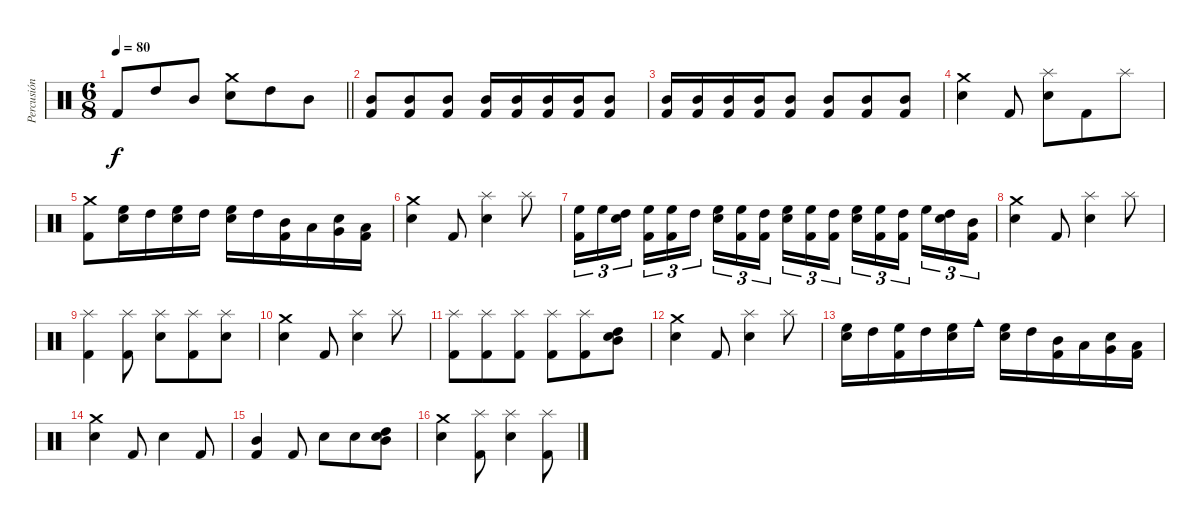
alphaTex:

\track ("Percusión" "Percusión") {instrument percussion}
\staff {score}
\articulation defaults
\ts (6 8)
\tempo 80
\clef neutral
\barLineRight lightlight
\ks c "Kick (hit) 2".8{dy f} "High Tom (hit)".8 "Mid Tom (hit)".8
("Snare (hit) 2" "Crash medium (hit)").8 "High Tom (hit)".8 "Mid Tom (hit)".8 |
("Kick (hit) 2" "Mid Tom (hit)").8 ("Kick (hit) 2" "Mid Tom (hit)").8 ("Kick (hit) 2" "Mid Tom (hit)").8 ("Kick (hit) 2" "Mid Tom (hit)").16 ("Kick (hit) 2" "Mid Tom (hit)").16 ("Kick (hit) 2" "Mid Tom (hit)").16 ("Kick (hit) 2" "Mid Tom (hit)").16 ("Kick (hit) 2" "Mid Tom (hit)").8 |
("Kick (hit) 2" "Mid Tom (hit)").16 ("Kick (hit) 2" "Mid Tom (hit)").16 ("Kick (hit) 2" "Mid Tom (hit)").16 ("Kick (hit) 2" "Mid Tom (hit)").16 ("Kick (hit) 2" "Mid Tom (hit)").8 ("Kick (hit) 2" "Mid Tom (hit)").8 ("Kick (hit) 2" "Mid Tom (hit)").8 ("Kick (hit) 2" "Mid Tom (hit)").8 |
("Snare (hit) 2" "Crash medium (hit)").4 "Kick (hit) 2".8 ("Snare (hit) 2" "Splash (hit)").8 "Kick (hit) 2".8 "Splash (hit)".8 |
("Kick (hit) 2" "Crash medium (hit)").8 ("Snare (hit) 2" "High Floor Tom (hit)").16 "High Tom (hit)".16 ("Snare (hit) 2" "High Floor Tom (hit)").16 "High Tom (hit)".16 ("Snare (hit) 2" "High Floor Tom (hit)").16 "High Tom (hit)".16 ("Kick (hit) 2" "Mid Tom (hit)").16 "Low Tom (hit)".16 ("Snare (hit) 2" "Very Low Tom (hit)").16 ("Kick (hit) 2" "Low Floor Tom (hit)").16 |
("Snare (hit) 2" "Crash medium (hit)").4 "Kick (hit) 2".8 ("Snare (hit) 2" "Splash (hit)").4 "Splash (hit)".8 |
("Kick (hit) 2" "High Floor Tom (hit)").16{tu (3 2)} "High Floor Tom (hit)".16{tu (3 2)} ("Snare (hit) 2" "High Tom (hit)").16{tu (3 2) beam splitsecondary} ("Kick (hit) 2" "High Floor Tom (hit)").16{tu (3 2)} ("Kick (hit) 2" "High Floor Tom (hit)").16{tu (3 2)} "High Tom (hit)".16{tu (3 2) beam splitsecondary} ("Snare (hit) 2" "High Floor Tom (hit)").16{tu (3 2)} ("Kick (hit) 2" "High Floor Tom (hit)").16{tu (3 2)} ("Kick (hit) 2" "High Tom (hit)").16{tu (3 2)} ("Snare (hit) 2" "High Floor Tom (hit)").16{tu (3 2)} ("Kick (hit) 2" "High Floor Tom (hit)").16{tu (3 2)} ("Kick (hit) 2" "High Tom (hit)").16{tu (3 2) beam splitsecondary} ("Snare (hit) 2" "High Floor Tom (hit)").16{tu (3 2)} ("Kick (hit) 2" "High Floor Tom (hit)").16{tu (3 2)} ("Kick (hit) 2" "High Tom (hit)").16{tu (3 2) beam splitsecondary} "High Floor Tom (hit)".16{tu (3 2)} ("Snare (hit) 2" "High Tom (hit)").16{tu (3 2)} ("Kick (hit) 2" "Mid Tom (hit)").16{tu (3 2)} |
("Snare (hit) 2" "Crash medium (hit)").4 "Kick (hit) 2".8 ("Snare (hit) 2" "Splash (hit)").4 "Splash (hit)".8 |
("Kick (hit) 2" "Splash (hit)").4 ("Kick (hit) 2" "Splash (hit)").8 ("Snare (hit) 2" "Splash (hit)").8 ("Kick (hit) 2" "Splash (hit)").8 ("Snare (hit) 2" "Splash (hit)").8 |
("Snare (hit) 2" "Crash medium (hit)").4 "Kick (hit) 2".8 ("Snare (hit) 2" "Splash (hit)").4 "Splash (hit)".8 |
("Kick (hit) 2" "Splash (hit)").8 ("Kick (hit) 2" "Splash (hit)").8 ("Kick (hit) 2" "Splash (hit)").8 ("Kick (hit) 2" "Splash (hit)").8 ("Kick (hit) 2" "Splash (hit)").8 ("Snare (hit) 2" "High Tom (hit)" "Mid Tom (hit)").8 |
("Snare (hit) 2" "Crash medium (hit)").4 "Kick (hit) 2".8 ("Snare (hit) 2" "Splash (hit)").4 "Splash (hit)".8 |
("Snare (hit) 2" "High Floor Tom (hit)").16 "High Tom (hit)".16 ("Kick (hit) 2" "High Floor Tom (hit)").16 "High Tom (hit)".16 ("Snare (hit) 2" "High Floor Tom (hit)").16 "Cowbell medium (hit)".16 ("Snare (hit) 2" "High Floor Tom (hit)").16 "High Tom (hit)".16 ("Kick (hit) 2" "Mid Tom (hit)").16 "Low Tom (hit)".16 ("Snare (hit) 2" "Very Low Tom (hit)").16 ("Kick (hit) 2" "Low Floor Tom (hit)").16 |
("Snare (hit) 2" "Crash medium (hit)").4 "Kick (hit) 2".8 "Snare (hit) 2".4 "Kick (hit) 2".8 |
("Kick (hit) 2" "Mid Tom (hit)").4 "Kick (hit) 2".8 "Snare (hit) 2".8 "Snare (hit) 2".8 ("Snare (hit) 2" "High Tom (hit)" "Mid Tom (hit)").8 |
("Snare (hit) 2" "Crash medium (hit)").4 ("Kick (hit) 2" "Splash (hit)").8 ("Snare (hit) 2" "Splash (hit)").4 ("Kick (hit) 2" "Splash (hit)").8
